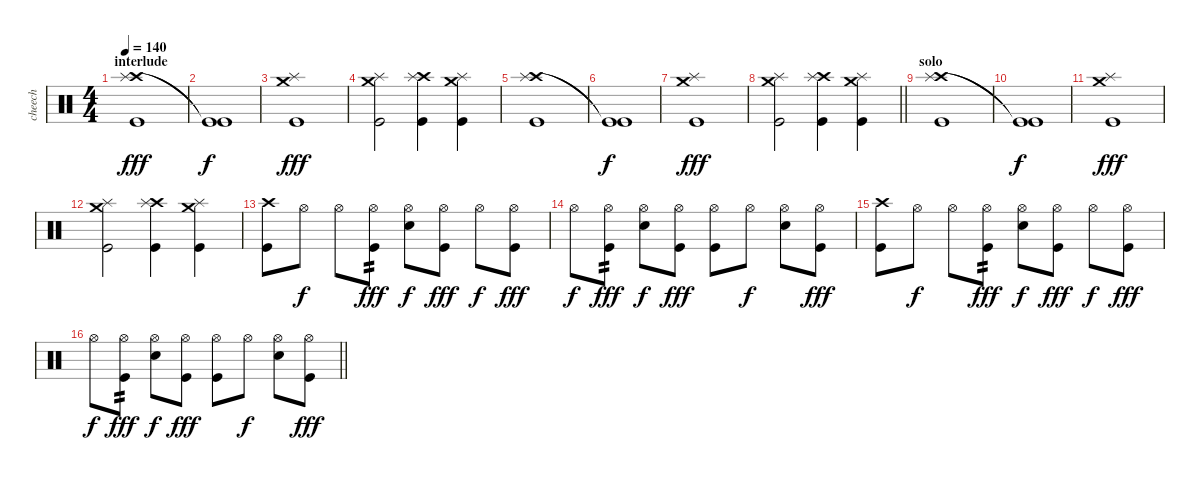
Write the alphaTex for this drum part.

\track ("cheech" "cheech") {solo instrument percussion}
\staff {score}
\articulation defaults
\ts (4 4)
\section ("" "interlude")
\tempo 140
\clef neutral
\ks c
("Crash high (hit)" "Splash (hit)" "Kick (hit)").1{dy fff} |
("Kick (hit)"{t} "Kick (hit)"{t}).1{dy f} |
("Crash medium (hit)" "Splash (hit)" "Kick (hit)").1{dy fff} |
("Crash medium (hit)" "Splash (hit)" "Kick (hit)").2 ("Crash high (hit)" "Splash (hit)" "Kick (hit)").4 ("Crash medium (hit)" "Splash (hit)" "Kick (hit)").4 |
("Crash high (hit)" "Splash (hit)" "Kick (hit)").1 |
("Kick (hit)"{t} "Kick (hit)"{t}).1{dy f} |
("Crash medium (hit)" "Splash (hit)" "Kick (hit)").1{dy fff} |
\barLineRight lightlight
("Crash medium (hit)" "Splash (hit)" "Kick (hit)").2 ("Crash high (hit)" "Splash (hit)" "Kick (hit)").4 ("Crash medium (hit)" "Splash (hit)" "Kick (hit)").4 |
\section ("" "solo")
("Crash high (hit)" "Splash (hit)" "Kick (hit)").1 |
("Kick (hit)"{t} "Kick (hit)"{t}).1{dy f} |
("Crash medium (hit)" "Splash (hit)" "Kick (hit)").1{dy fff} |
("Crash medium (hit)" "Splash (hit)" "Kick (hit)").2 ("Crash high (hit)" "Splash (hit)" "Kick (hit)").4 ("Crash medium (hit)" "Splash (hit)" "Kick (hit)").4 |
("Crash high (hit)" "Kick (hit)").8 "Hi-Hat (open)".8{dy f} "Hi-Hat (open)".8 ("Hi-Hat (open)" "Kick (hit)").8{tp 2 dy fff} ("Hi-Hat (open)" "Electric Snare (hit)").8{dy f} ("Hi-Hat (open)" "Kick (hit)").8{dy fff} "Hi-Hat (open)".8{dy f} ("Hi-Hat (open)" "Kick (hit)").8{dy fff} |
"Hi-Hat (open)".8{dy f} ("Hi-Hat (open)" "Kick (hit)").8{tp 2 dy fff} ("Hi-Hat (open)" "Electric Snare (hit)").8{dy f} ("Hi-Hat (open)" "Kick (hit)").8{dy fff} ("Hi-Hat (open)" "Kick (hit)").8 "Hi-Hat (open)".8{dy f} ("Hi-Hat (open)" "Electric Snare (hit)").8 ("Hi-Hat (open)" "Kick (hit)").8{dy fff} |
("Crash high (hit)" "Kick (hit)").8 "Hi-Hat (open)".8{dy f} "Hi-Hat (open)".8 ("Hi-Hat (open)" "Kick (hit)").8{tp 2 dy fff} ("Hi-Hat (open)" "Electric Snare (hit)").8{dy f} ("Hi-Hat (open)" "Kick (hit)").8{dy fff} "Hi-Hat (open)".8{dy f} ("Hi-Hat (open)" "Kick (hit)").8{dy fff} |
\barLineRight lightlight "Hi-Hat (open)".8{dy f}
("Hi-Hat (open)" "Kick (hit)").8{tp 2 dy fff} ("Hi-Hat (open)" "Electric Snare (hit)").8{dy f} ("Hi-Hat (open)" "Kick (hit)").8{dy fff} ("Hi-Hat (open)" "Kick (hit)").8 "Hi-Hat (open)".8{dy f} ("Hi-Hat (open)" "Electric Snare (hit)").8 ("Hi-Hat (open)" "Kick (hit)").8{dy fff}
